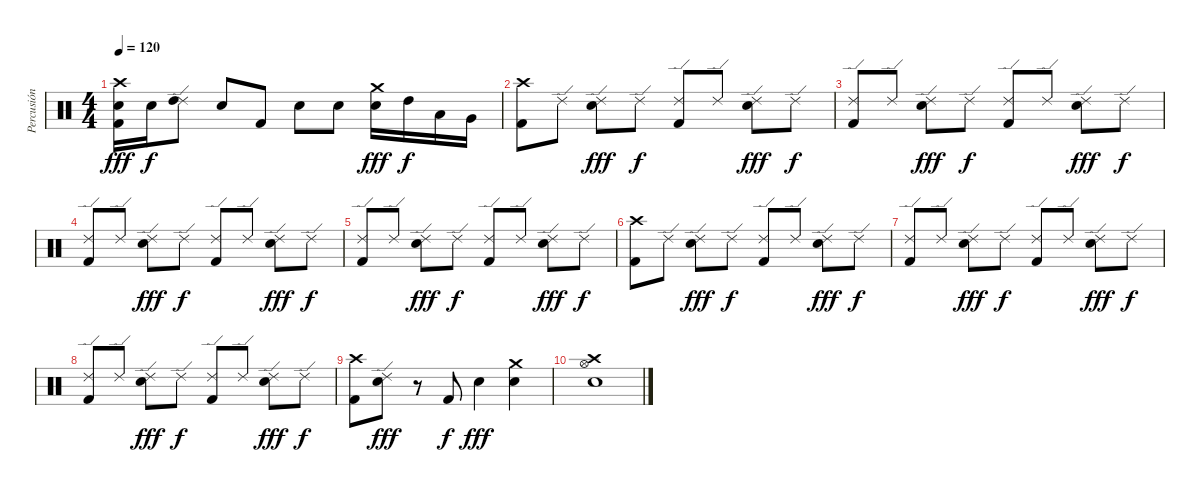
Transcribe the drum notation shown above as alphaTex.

\track ("Percusión" "Percusión") {instrument percussion}
\staff {score}
\articulation defaults
\ts (4 4)
\tempo 120
\clef neutral
\ks c
("Crash high (hit)" "Snare (hit) 2" "Kick (hit) 2").16{dy fff} "Snare (hit) 2".16{dy f} ("Ride (edge) 2" "High Tom (hit)").8 "Snare (hit) 2".8 "Kick (hit) 2".8 "Snare (hit) 2".8 "Snare (hit) 2".8 ("Crash medium (hit)" "Snare (hit) 2").16{dy fff} "High Tom (hit)".16{dy f} "Low Tom (hit)".16 "Very Low Tom (hit)".16 |
("Crash high (hit)" "Kick (hit) 2").8 "Ride (edge) 2".8 ("Ride (edge) 2" "Snare (hit) 2").8{dy fff} "Ride (edge) 2".8{dy f} ("Ride (edge) 2" "Kick (hit) 2").8 "Ride (edge) 2".8 ("Ride (edge) 2" "Snare (hit) 2").8{dy fff} "Ride (edge) 2".8{dy f} |
("Ride (edge) 2" "Kick (hit) 2").8 "Ride (edge) 2".8 ("Ride (edge) 2" "Snare (hit) 2").8{dy fff} "Ride (edge) 2".8{dy f} ("Ride (edge) 2" "Kick (hit) 2").8 "Ride (edge) 2".8 ("Ride (edge) 2" "Snare (hit) 2").8{dy fff} "Ride (edge) 2".8{dy f} |
("Ride (edge) 2" "Kick (hit) 2").8 "Ride (edge) 2".8 ("Ride (edge) 2" "Snare (hit) 2").8{dy fff} "Ride (edge) 2".8{dy f} ("Ride (edge) 2" "Kick (hit) 2").8 "Ride (edge) 2".8 ("Ride (edge) 2" "Snare (hit) 2").8{dy fff} "Ride (edge) 2".8{dy f} |
("Ride (edge) 2" "Kick (hit) 2").8 "Ride (edge) 2".8 ("Ride (edge) 2" "Snare (hit) 2").8{dy fff} "Ride (edge) 2".8{dy f} ("Ride (edge) 2" "Kick (hit) 2").8 "Ride (edge) 2".8 ("Ride (edge) 2" "Snare (hit) 2").8{dy fff} "Ride (edge) 2".8{dy f} |
("Crash high (hit)" "Kick (hit) 2").8 "Ride (edge) 2".8 ("Ride (edge) 2" "Snare (hit) 2").8{dy fff} "Ride (edge) 2".8{dy f} ("Ride (edge) 2" "Kick (hit) 2").8 "Ride (edge) 2".8 ("Ride (edge) 2" "Snare (hit) 2").8{dy fff} "Ride (edge) 2".8{dy f} |
("Ride (edge) 2" "Kick (hit) 2").8 "Ride (edge) 2".8 ("Ride (edge) 2" "Snare (hit) 2").8{dy fff} "Ride (edge) 2".8{dy f} ("Ride (edge) 2" "Kick (hit) 2").8 "Ride (edge) 2".8 ("Ride (edge) 2" "Snare (hit) 2").8{dy fff} "Ride (edge) 2".8{dy f} |
("Ride (edge) 2" "Kick (hit) 2").8 "Ride (edge) 2".8 ("Ride (edge) 2" "Snare (hit) 2").8{dy fff} "Ride (edge) 2".8{dy f} ("Ride (edge) 2" "Kick (hit) 2").8 "Ride (edge) 2".8 ("Ride (edge) 2" "Snare (hit) 2").8{dy fff} "Ride (edge) 2".8{dy f} |
("Crash high (hit)" "Kick (hit) 2").8 ("Ride (edge) 2" "Snare (hit) 2").8{dy fff} r.8 "Kick (hit) 2".8{dy f} "Snare (hit) 2".4{dy fff} ("Crash medium (hit)" "Snare (hit) 2").4 |
("Crash high (hit)" "Hi-Hat (open)" "Snare (hit) 2").1
